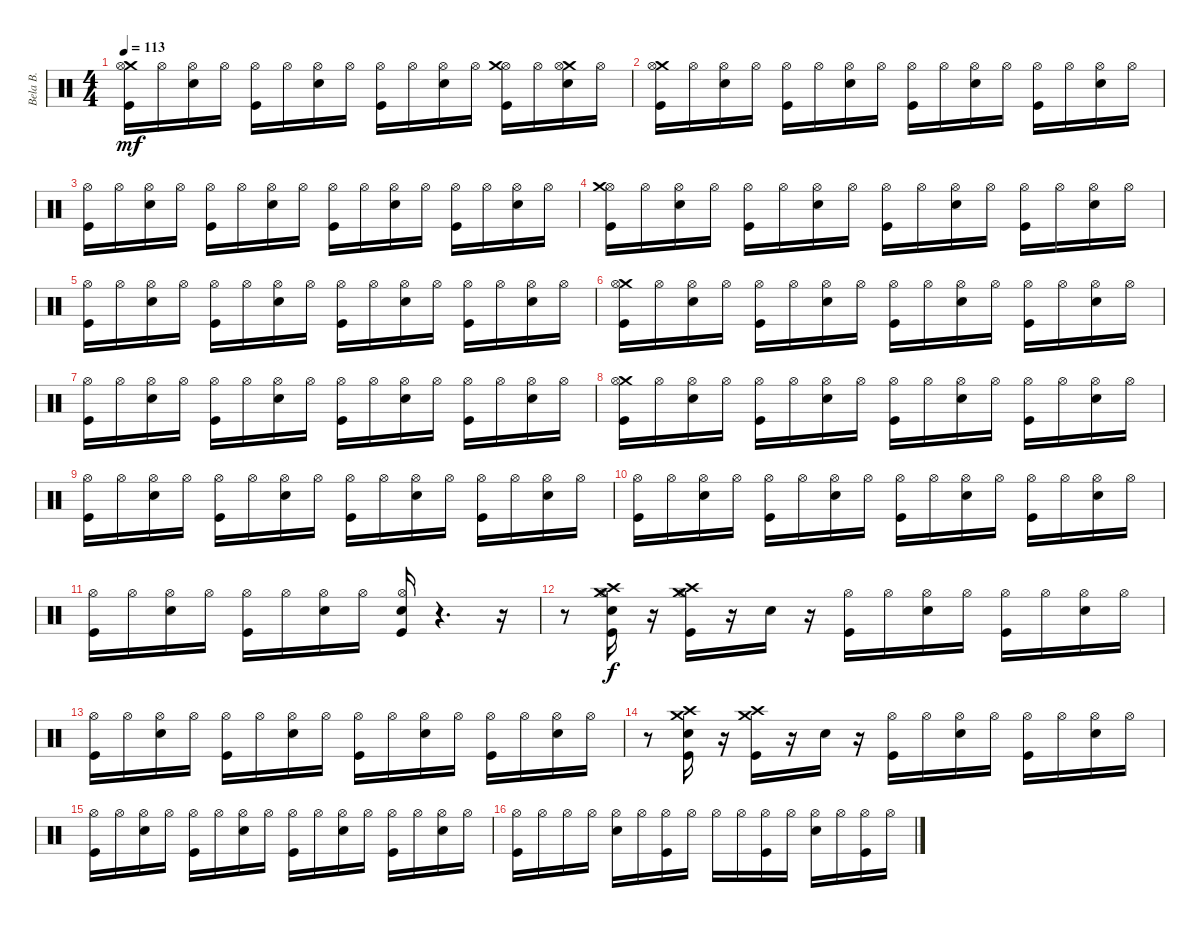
\track ("Bela B." "Bela B.") {instrument percussion}
\staff {score}
\articulation defaults
\ts (4 4)
\tempo 113
\clef neutral
\ks c
("Crash medium (hit)" "Kick (hit)" "Hi-Hat (open)").16{dy mf} "Hi-Hat (open)".16 ("Snare (hit) 2" "Hi-Hat (open)").16 "Hi-Hat (open)".16 ("Hi-Hat (open)" "Kick (hit)").16 "Hi-Hat (open)".16 ("Snare (hit) 2" "Hi-Hat (open)").16 "Hi-Hat (open)".16 ("Hi-Hat (open)" "Kick (hit)").16 "Hi-Hat (open)".16 ("Hi-Hat (open)" "Snare (hit) 2").16 "Hi-Hat (open)".16 ("Hi-Hat (open)" "Crash medium (hit)" "Kick (hit)").16 "Hi-Hat (open)".16 ("Crash medium (hit)" "Hi-Hat (open)" "Snare (hit) 2").16 "Hi-Hat (open)".16 |
("Crash medium (hit)" "Kick (hit)" "Hi-Hat (open)").16 "Hi-Hat (open)".16 ("Hi-Hat (open)" "Snare (hit) 2").16 "Hi-Hat (open)".16 ("Kick (hit)" "Hi-Hat (open)").16 "Hi-Hat (open)".16 ("Snare (hit) 2" "Hi-Hat (open)").16 "Hi-Hat (open)".16 ("Kick (hit)" "Hi-Hat (open)").16 "Hi-Hat (open)".16 ("Hi-Hat (open)" "Snare (hit) 2").16 "Hi-Hat (open)".16 ("Kick (hit)" "Hi-Hat (open)").16 "Hi-Hat (open)".16 ("Snare (hit) 2" "Hi-Hat (open)").16 "Hi-Hat (open)".16 |
("Kick (hit)" "Hi-Hat (open)").16 "Hi-Hat (open)".16 ("Hi-Hat (open)" "Snare (hit) 2").16 "Hi-Hat (open)".16 ("Kick (hit)" "Hi-Hat (open)").16 "Hi-Hat (open)".16 ("Hi-Hat (open)" "Snare (hit) 2").16 "Hi-Hat (open)".16 ("Hi-Hat (open)" "Kick (hit)").16 "Hi-Hat (open)".16 ("Snare (hit) 2" "Hi-Hat (open)").16 "Hi-Hat (open)".16 ("Kick (hit)" "Hi-Hat (open)").16 "Hi-Hat (open)".16 ("Snare (hit) 2" "Hi-Hat (open)").16 "Hi-Hat (open)".16 |
("Hi-Hat (open)" "Crash medium (hit)" "Kick (hit)").16 "Hi-Hat (open)".16 ("Hi-Hat (open)" "Snare (hit) 2").16 "Hi-Hat (open)".16 ("Kick (hit)" "Hi-Hat (open)").16 "Hi-Hat (open)".16 ("Hi-Hat (open)" "Snare (hit) 2").16 "Hi-Hat (open)".16 ("Hi-Hat (open)" "Kick (hit)").16 "Hi-Hat (open)".16 ("Hi-Hat (open)" "Snare (hit) 2").16 "Hi-Hat (open)".16 ("Hi-Hat (open)" "Kick (hit)").16 "Hi-Hat (open)".16 ("Snare (hit) 2" "Hi-Hat (open)").16 "Hi-Hat (open)".16 |
("Kick (hit)" "Hi-Hat (open)").16 "Hi-Hat (open)".16 ("Snare (hit) 2" "Hi-Hat (open)").16 "Hi-Hat (open)".16 ("Hi-Hat (open)" "Kick (hit)").16 "Hi-Hat (open)".16 ("Hi-Hat (open)" "Snare (hit) 2").16 "Hi-Hat (open)".16 ("Hi-Hat (open)" "Kick (hit)").16 "Hi-Hat (open)".16 ("Hi-Hat (open)" "Snare (hit) 2").16 "Hi-Hat (open)".16 ("Hi-Hat (open)" "Kick (hit)").16 "Hi-Hat (open)".16 ("Snare (hit) 2" "Hi-Hat (open)").16 "Hi-Hat (open)".16 |
("Crash medium (hit)" "Hi-Hat (open)" "Kick (hit)").16 "Hi-Hat (open)".16 ("Snare (hit) 2" "Hi-Hat (open)").16 "Hi-Hat (open)".16 ("Kick (hit)" "Hi-Hat (open)").16 "Hi-Hat (open)".16 ("Hi-Hat (open)" "Snare (hit) 2").16 "Hi-Hat (open)".16 ("Kick (hit)" "Hi-Hat (open)").16 "Hi-Hat (open)".16 ("Hi-Hat (open)" "Snare (hit) 2").16 "Hi-Hat (open)".16 ("Kick (hit)" "Hi-Hat (open)").16 "Hi-Hat (open)".16 ("Hi-Hat (open)" "Snare (hit) 2").16 "Hi-Hat (open)".16 |
("Hi-Hat (open)" "Kick (hit)").16 "Hi-Hat (open)".16 ("Snare (hit) 2" "Hi-Hat (open)").16 "Hi-Hat (open)".16 ("Hi-Hat (open)" "Kick (hit)").16 "Hi-Hat (open)".16 ("Snare (hit) 2" "Hi-Hat (open)").16 "Hi-Hat (open)".16 ("Kick (hit)" "Hi-Hat (open)").16 "Hi-Hat (open)".16 ("Hi-Hat (open)" "Snare (hit) 2").16 "Hi-Hat (open)".16 ("Hi-Hat (open)" "Kick (hit)").16 "Hi-Hat (open)".16 ("Hi-Hat (open)" "Snare (hit) 2").16 "Hi-Hat (open)".16 |
("Crash medium (hit)" "Kick (hit)" "Hi-Hat (open)").16 "Hi-Hat (open)".16 ("Snare (hit) 2" "Hi-Hat (open)").16 "Hi-Hat (open)".16 ("Hi-Hat (open)" "Kick (hit)").16 "Hi-Hat (open)".16 ("Hi-Hat (open)" "Snare (hit) 2").16 "Hi-Hat (open)".16 ("Hi-Hat (open)" "Kick (hit)").16 "Hi-Hat (open)".16 ("Hi-Hat (open)" "Snare (hit) 2").16 "Hi-Hat (open)".16 ("Kick (hit)" "Hi-Hat (open)").16 "Hi-Hat (open)".16 ("Snare (hit) 2" "Hi-Hat (open)").16 "Hi-Hat (open)".16 |
("Kick (hit)" "Hi-Hat (open)").16 "Hi-Hat (open)".16 ("Snare (hit) 2" "Hi-Hat (open)").16 "Hi-Hat (open)".16 ("Hi-Hat (open)" "Kick (hit)").16 "Hi-Hat (open)".16 ("Hi-Hat (open)" "Snare (hit) 2").16 "Hi-Hat (open)".16 ("Hi-Hat (open)" "Kick (hit)").16 "Hi-Hat (open)".16 ("Hi-Hat (open)" "Snare (hit) 2").16 "Hi-Hat (open)".16 ("Kick (hit)" "Hi-Hat (open)").16 "Hi-Hat (open)".16 ("Hi-Hat (open)" "Snare (hit) 2").16 "Hi-Hat (open)".16 |
("Kick (hit)" "Hi-Hat (open)").16 "Hi-Hat (open)".16 ("Snare (hit) 2" "Hi-Hat (open)").16 "Hi-Hat (open)".16 ("Hi-Hat (open)" "Kick (hit)").16 "Hi-Hat (open)".16 ("Hi-Hat (open)" "Snare (hit) 2").16 "Hi-Hat (open)".16 ("Hi-Hat (open)" "Kick (hit)").16 "Hi-Hat (open)".16 ("Hi-Hat (open)" "Snare (hit) 2").16 "Hi-Hat (open)".16 ("Hi-Hat (open)" "Kick (hit)").16 "Hi-Hat (open)".16 ("Hi-Hat (open)" "Snare (hit) 2").16 "Hi-Hat (open)".16 |
("Kick (hit)" "Hi-Hat (open)").16 "Hi-Hat (open)".16 ("Hi-Hat (open)" "Snare (hit) 2").16 "Hi-Hat (open)".16 ("Hi-Hat (open)" "Kick (hit)").16 "Hi-Hat (open)".16 ("Hi-Hat (open)" "Snare (hit) 2").16 "Hi-Hat (open)".16 ("Kick (hit)" "Snare (hit) 2" "Hi-Hat (open)").16 r.4{d} r.16 |
r.8 ("Crash medium (hit)" "Crash high (hit)" "Kick (hit)" "Snare (hit) 2" "Hi-Hat (open)").16{dy f} r.16 ("Crash high (hit)" "Kick (hit)" "Hi-Hat (open)" "Crash medium (hit)").16 r.16 "Snare (hit) 2".16 r.16 ("Hi-Hat (open)" "Kick (hit)").16 "Hi-Hat (open)".16 ("Hi-Hat (open)" "Snare (hit) 2").16 "Hi-Hat (open)".16 ("Kick (hit)" "Hi-Hat (open)").16 "Hi-Hat (open)".16 ("Hi-Hat (open)" "Snare (hit) 2").16 "Hi-Hat (open)".16 |
("Hi-Hat (open)" "Kick (hit)").16 "Hi-Hat (open)".16 ("Snare (hit) 2" "Hi-Hat (open)").16 "Hi-Hat (open)".16 ("Hi-Hat (open)" "Kick (hit)").16 "Hi-Hat (open)".16 ("Hi-Hat (open)" "Snare (hit) 2").16 "Hi-Hat (open)".16 ("Hi-Hat (open)" "Kick (hit)").16 "Hi-Hat (open)".16 ("Hi-Hat (open)" "Snare (hit) 2").16 "Hi-Hat (open)".16 ("Hi-Hat (open)" "Kick (hit)").16 "Hi-Hat (open)".16 ("Snare (hit) 2" "Hi-Hat (open)").16 "Hi-Hat (open)".16 |
r.8 ("Snare (hit) 2" "Crash high (hit)" "Crash medium (hit)" "Kick (hit)").16 r.16 ("Crash medium (hit)" "Kick (hit)" "Crash high (hit)").16 r.16 "Snare (hit) 2".16 r.16 ("Kick (hit)" "Hi-Hat (open)").16 "Hi-Hat (open)".16 ("Hi-Hat (open)" "Snare (hit) 2").16 "Hi-Hat (open)".16 ("Hi-Hat (open)" "Kick (hit)").16 "Hi-Hat (open)".16 ("Hi-Hat (open)" "Snare (hit) 2").16 "Hi-Hat (open)".16 |
("Kick (hit)" "Hi-Hat (open)").16 "Hi-Hat (open)".16 ("Hi-Hat (open)" "Snare (hit) 2").16 "Hi-Hat (open)".16 ("Hi-Hat (open)" "Kick (hit)").16 "Hi-Hat (open)".16 ("Hi-Hat (open)" "Snare (hit) 2").16 "Hi-Hat (open)".16 ("Kick (hit)" "Hi-Hat (open)").16 "Hi-Hat (open)".16 ("Hi-Hat (open)" "Snare (hit) 2").16 "Hi-Hat (open)".16 ("Hi-Hat (open)" "Kick (hit)").16 "Hi-Hat (open)".16 ("Hi-Hat (open)" "Snare (hit) 2").16 "Hi-Hat (open)".16 |
("Hi-Hat (open)" "Kick (hit)").16 "Hi-Hat (open)".16 "Hi-Hat (open)".16 "Hi-Hat (open)".16 ("Hi-Hat (open)" "Snare (hit) 2").16 "Hi-Hat (open)".16 ("Hi-Hat (open)" "Kick (hit)").16 "Hi-Hat (open)".16 "Hi-Hat (open)".16 "Hi-Hat (open)".16 ("Hi-Hat (open)" "Kick (hit)").16 "Hi-Hat (open)".16 ("Snare (hit) 2" "Hi-Hat (open)").16 "Hi-Hat (open)".16 ("Kick (hit)" "Hi-Hat (open)").16 "Hi-Hat (open)".16
